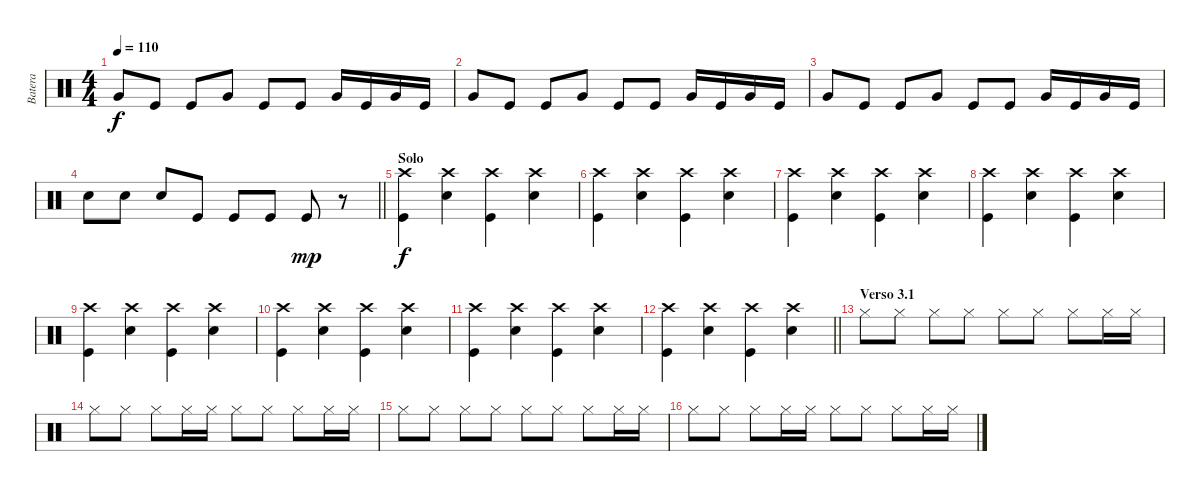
\track ("Batera" "Batera") {instrument percussion}
\staff {score}
\articulation defaults
\ts (4 4)
\tempo 110
\clef neutral
\ks c "Very Low Tom (hit)".8{dy f} "Kick (hit)".8 "Kick (hit)".8 "Very Low Tom (hit)".8 "Kick (hit)".8 "Kick (hit)".8 "Very Low Tom (hit)".16 "Kick (hit)".16 "Very Low Tom (hit)".16 "Kick (hit)".16
|
"Very Low Tom (hit)".8 "Kick (hit)".8 "Kick (hit)".8 "Very Low Tom (hit)".8 "Kick (hit)".8 "Kick (hit)".8 "Very Low Tom (hit)".16 "Kick (hit)".16 "Very Low Tom (hit)".16 "Kick (hit)".16 |
"Very Low Tom (hit)".8 "Kick (hit)".8 "Kick (hit)".8 "Very Low Tom (hit)".8 "Kick (hit)".8 "Kick (hit)".8 "Very Low Tom (hit)".16 "Kick (hit)".16 "Very Low Tom (hit)".16 "Kick (hit)".16 |
\barLineRight lightlight "Snare (hit) 2".8 "Snare (hit) 2".8 "Snare (hit) 2".8 "Kick (hit)".8 "Kick (hit)".8 "Kick (hit)".8 "Kick (hit)".8{dy mp}
r.8 |
\section ("" "Solo")
("Crash high (hit)" "Kick (hit)").4{dy f} ("Crash high (hit)" "Snare (hit) 2").4 ("Crash high (hit)" "Kick (hit)").4 ("Crash high (hit)" "Snare (hit) 2").4 |
("Crash high (hit)" "Kick (hit)").4 ("Crash high (hit)" "Snare (hit) 2").4 ("Crash high (hit)" "Kick (hit)").4 ("Crash high (hit)" "Snare (hit) 2").4 |
("Crash high (hit)" "Kick (hit)").4 ("Crash high (hit)" "Snare (hit) 2").4 ("Crash high (hit)" "Kick (hit)").4 ("Crash high (hit)" "Snare (hit) 2").4 |
("Crash high (hit)" "Kick (hit)").4 ("Crash high (hit)" "Snare (hit) 2").4 ("Crash high (hit)" "Kick (hit)").4 ("Crash high (hit)" "Snare (hit) 2").4 |
("Crash high (hit)" "Kick (hit)").4 ("Crash high (hit)" "Snare (hit) 2").4 ("Crash high (hit)" "Kick (hit)").4 ("Crash high (hit)" "Snare (hit) 2").4 |
("Crash high (hit)" "Kick (hit)").4 ("Crash high (hit)" "Snare (hit) 2").4 ("Crash high (hit)" "Kick (hit)").4 ("Crash high (hit)" "Snare (hit) 2").4 |
("Crash high (hit)" "Kick (hit)").4 ("Crash high (hit)" "Snare (hit) 2").4 ("Crash high (hit)" "Kick (hit)").4 ("Crash high (hit)" "Snare (hit) 2").4 |
\barLineRight lightlight
("Crash high (hit)" "Kick (hit)").4 ("Crash high (hit)" "Snare (hit) 2").4 ("Crash high (hit)" "Kick (hit)").4 ("Crash high (hit)" "Snare (hit) 2").4 |
\section ("" "Verso 3.1")
"Hi-Hat (closed)".8 "Hi-Hat (closed)".8 "Hi-Hat (closed)".8 "Hi-Hat (closed)".8 "Hi-Hat (closed)".8 "Hi-Hat (closed)".8 "Hi-Hat (closed)".8 "Hi-Hat (closed)".16 "Hi-Hat (closed)".16 |
"Hi-Hat (closed)".8 "Hi-Hat (closed)".8 "Hi-Hat (closed)".8 "Hi-Hat (closed)".16 "Hi-Hat (closed)".16 "Hi-Hat (closed)".8 "Hi-Hat (closed)".8 "Hi-Hat (closed)".8 "Hi-Hat (closed)".16 "Hi-Hat (closed)".16 |
"Hi-Hat (closed)".8 "Hi-Hat (closed)".8 "Hi-Hat (closed)".8 "Hi-Hat (closed)".8 "Hi-Hat (closed)".8 "Hi-Hat (closed)".8 "Hi-Hat (closed)".8 "Hi-Hat (closed)".16 "Hi-Hat (closed)".16 |
"Hi-Hat (closed)".8 "Hi-Hat (closed)".8 "Hi-Hat (closed)".8 "Hi-Hat (closed)".16 "Hi-Hat (closed)".16 "Hi-Hat (closed)".8 "Hi-Hat (closed)".8 "Hi-Hat (closed)".8 "Hi-Hat (closed)".16 "Hi-Hat (closed)".16
